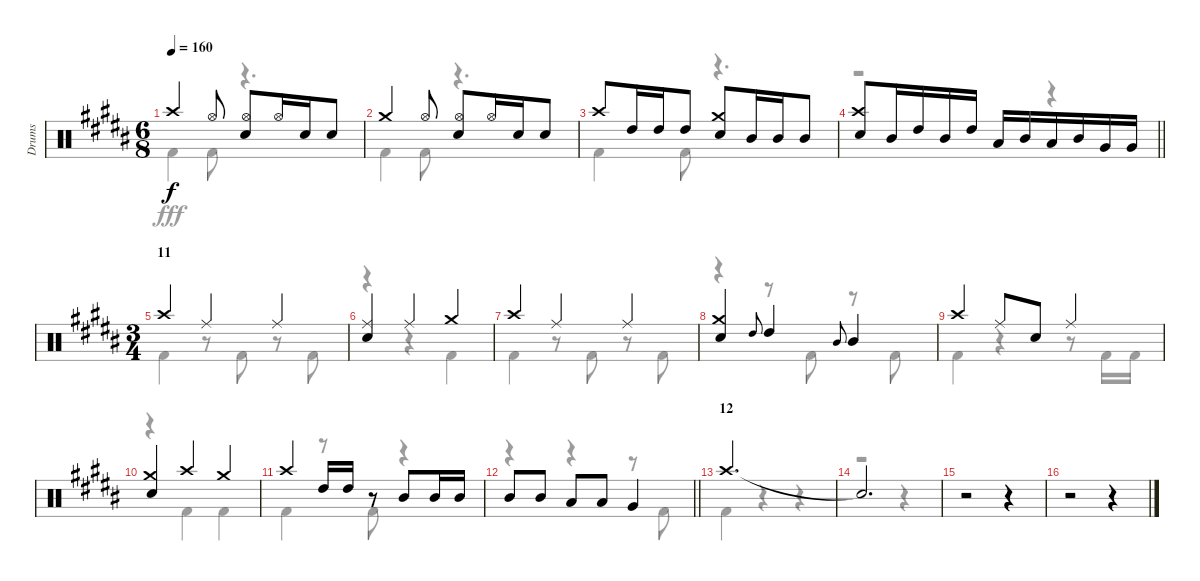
\track ("Drums" "Drums") {instrument percussion}
\staff {score}
\articulation defaults
\voice
\ts (6 8)
\tempo 160
\clef neutral
\ks b "Crash high (hit)".4{dy f} "Hi-Hat (open)".8
("Hi-Hat (open)" "Snare (hit) 2").8 "Hi-Hat (open)".16 "Snare (hit) 2".16 "Snare (hit) 2".8 |
"Crash medium (hit)".4 "Hi-Hat (open)".8 ("Hi-Hat (open)" "Snare (hit) 2").8 "Hi-Hat (open)".16 "Snare (hit) 2".16 "Snare (hit) 2".8 |
"Crash high (hit)".8 "High Tom (hit)".16 "High Tom (hit)".16 "High Tom (hit)".8 ("Crash medium (hit)" "Snare (hit) 2").8 "Mid Tom (hit)".16 "Mid Tom (hit)".16 "Mid Tom (hit)".8 |
\barLineRight lightlight
("Crash high (hit)" "Snare (hit) 2").8 "Mid Tom (hit)".16 "High Tom (hit)".16 "Mid Tom (hit)".16 "High Tom (hit)".16 "Low Tom (hit)".16 "Mid Tom (hit)".16 "Low Tom (hit)".16 "Mid Tom (hit)".16 "Very Low Tom (hit)".16 "Very Low Tom (hit)".16 |
\ts (3 4)
\section ("" "11")
"Crash high (hit)".4 "Ride (middle)".4 "Ride (middle)".4 |
("Ride (middle)" "Snare (hit) 2").4 "Ride (middle)".4 "Crash medium (hit)".4 |
"Crash high (hit)".4 "Ride (middle)".4 "Ride (middle)".4 |
("Crash medium (hit)" "Snare (hit) 2").4 "High Tom (hit)".8{gr onbeat} "High Tom (hit)".4 "Mid Tom (hit)".8{gr onbeat} "Mid Tom (hit)".4 |
"Crash high (hit)".4 "Ride (middle)".8 "Snare (hit) 2".8 "Ride (middle)".4 |
("Crash medium (hit)" "Snare (hit) 2").4 "Crash high (hit)".4 "Crash medium (hit)".4 |
"Crash high (hit)".4 "High Tom (hit)".16 "High Tom (hit)".16 r.8 "Mid Tom (hit)".8 "Mid Tom (hit)".16 "Mid Tom (hit)".16 |
\barLineRight lightlight "Mid Tom (hit)".8 "Mid Tom (hit)".8 "Low Tom (hit)".8 "Low Tom (hit)".8 "Very Low Tom (hit)".4
|
\section ("" "12")
"Crash high (hit)".2{d} |
"Snare (hit)"{t}.2{d} |
r.2 r.4 |
r.2 r.4
\voice
\clef neutral
\ottava regular
\simile none
\ks b "Kick (hit) 2".4{dy fff} "Kick (hit) 2".8
r.4{d} |
"Kick (hit) 2".4 "Kick (hit) 2".8 r.4{d} |
"Kick (hit) 2".4 "Kick (hit) 2".8 r.4{d} |
\barLineRight lightlight
r.2 r.4 |
"Kick (hit) 2".4 r.8 "Kick (hit) 2".8 r.8 "Kick (hit) 2".8 |
r.4 r.4 "Kick (hit) 2".4 |
"Kick (hit) 2".4 r.8 "Kick (hit) 2".8 r.8 "Kick (hit) 2".8 |
r.4 r.8 "Kick (hit) 2".8 r.8 "Kick (hit) 2".8 |
"Kick (hit) 2".4 r.4 r.8 "Kick (hit) 2".16 "Kick (hit) 2".16 |
r.4 "Kick (hit) 2".4 "Kick (hit) 2".4 |
"Kick (hit) 2".4 r.8 "Kick (hit) 2".8 r.4 |
\barLineRight lightlight
r.4 r.4 r.8 "Kick (hit) 2".8 |
"Kick (hit) 2".4 r.4 r.4 |
r.2 r.4 |
r.2 r.4 |
r.2 r.4
